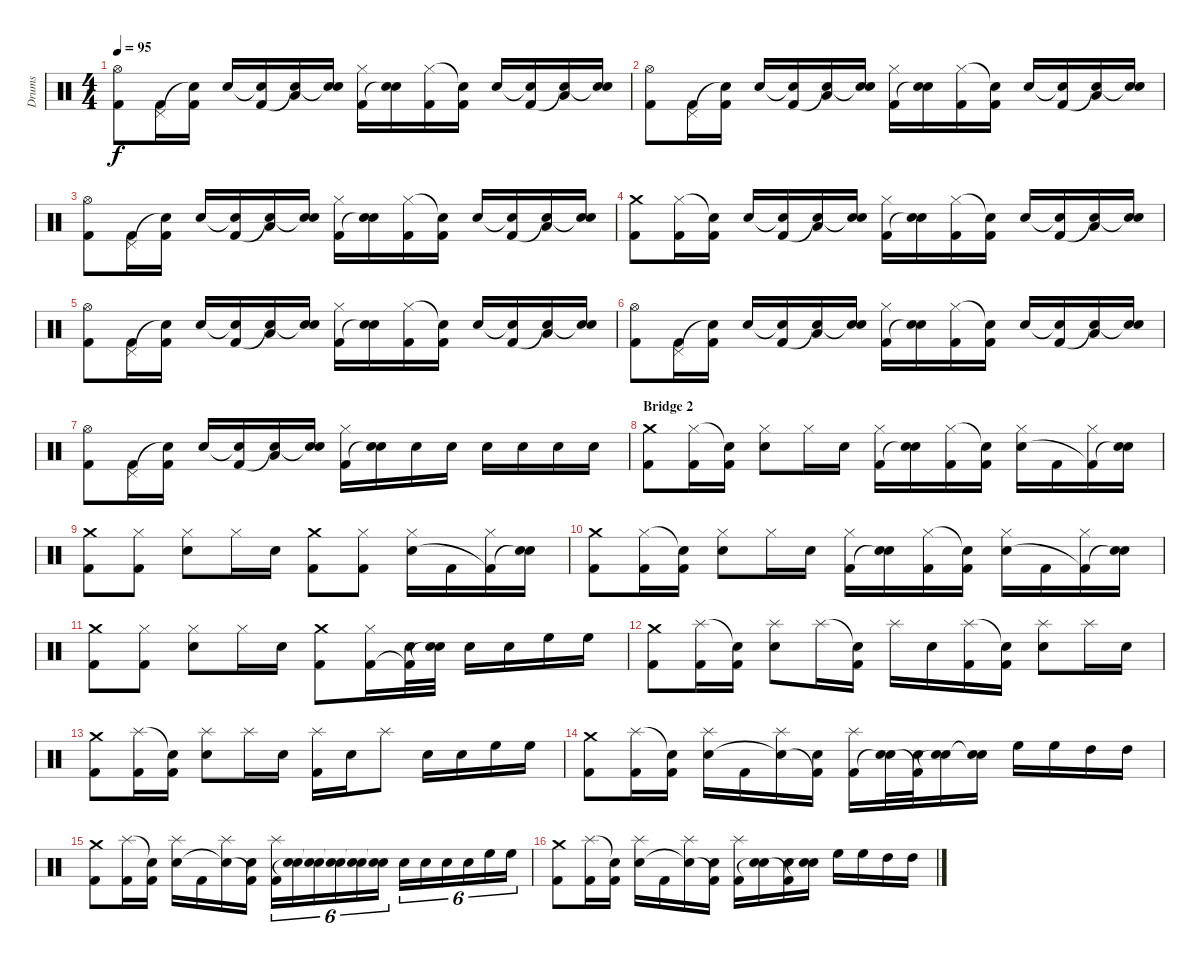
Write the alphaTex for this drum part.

\track ("Drums" "Drums") {instrument percussion}
\staff {score}
\articulation defaults
\ts (4 4)
\tempo 95
\clef neutral
\ks c
("Hi-Hat (open)" "Kick (hit) 2").8{dy f} ("Pedal Hi-Hat (hit)" "Kick (hit) 2").16 ("Snare (hit)"{t} "Kick (hit) 2").16 "Electric Snare (hit)".16 ("Snare (hit)"{t} "Kick (hit) 2").16 ("Low Tom (hit)" "Snare (hit)"{t}).16 ("Electric Snare (hit)" "Snare (hit)"{t}).16 ("Hi-Hat (closed)" "Kick (hit) 2").16 ("Electric Snare (hit)" "Snare (hit)"{t}).16 ("Hi-Hat (closed)" "Kick (hit) 2").16 ("Snare (hit)"{t} "Kick (hit) 2").16 "Electric Snare (hit)".16 ("Snare (hit)"{t} "Kick (hit) 2").16 ("Low Tom (hit)" "Snare (hit)"{t}).16 ("Electric Snare (hit)" "Snare (hit)"{t}).16 |
("Hi-Hat (open)" "Kick (hit) 2").8 ("Pedal Hi-Hat (hit)" "Kick (hit) 2").16 ("Snare (hit)"{t} "Kick (hit) 2").16 "Electric Snare (hit)".16 ("Snare (hit)"{t} "Kick (hit) 2").16 ("Low Tom (hit)" "Snare (hit)"{t}).16 ("Electric Snare (hit)" "Snare (hit)"{t}).16 ("Hi-Hat (closed)" "Kick (hit) 2").16 ("Electric Snare (hit)" "Snare (hit)"{t}).16 ("Hi-Hat (closed)" "Kick (hit) 2").16 ("Snare (hit)"{t} "Kick (hit) 2").16 "Electric Snare (hit)".16 ("Snare (hit)"{t} "Kick (hit) 2").16 ("Low Tom (hit)" "Snare (hit)"{t}).16 ("Electric Snare (hit)" "Snare (hit)"{t}).16 |
("Hi-Hat (open)" "Kick (hit) 2").8 ("Pedal Hi-Hat (hit)" "Kick (hit) 2").16 ("Snare (hit)"{t} "Kick (hit) 2").16 "Electric Snare (hit)".16 ("Snare (hit)"{t} "Kick (hit) 2").16 ("Low Tom (hit)" "Snare (hit)"{t}).16 ("Electric Snare (hit)" "Snare (hit)"{t}).16 ("Hi-Hat (closed)" "Kick (hit) 2").16 ("Electric Snare (hit)" "Snare (hit)"{t}).16 ("Hi-Hat (closed)" "Kick (hit) 2").16 ("Snare (hit)"{t} "Kick (hit) 2").16 "Electric Snare (hit)".16 ("Snare (hit)"{t} "Kick (hit) 2").16 ("Low Tom (hit)" "Snare (hit)"{t}).16 ("Electric Snare (hit)" "Snare (hit)"{t}).16 |
("Crash medium (hit)" "Kick (hit) 2").8 ("Hi-Hat (closed)" "Kick (hit) 2").16 ("Snare (hit)"{t} "Kick (hit) 2").16 "Electric Snare (hit)".16 ("Snare (hit)"{t} "Kick (hit) 2").16 ("Low Tom (hit)" "Snare (hit)"{t}).16 ("Electric Snare (hit)" "Snare (hit)"{t}).16 ("Hi-Hat (closed)" "Kick (hit) 2").16 ("Electric Snare (hit)" "Snare (hit)"{t}).16 ("Hi-Hat (closed)" "Kick (hit) 2").16 ("Snare (hit)"{t} "Kick (hit) 2").16 "Electric Snare (hit)".16 ("Snare (hit)"{t} "Kick (hit) 2").16 ("Low Tom (hit)" "Snare (hit)"{t}).16 ("Electric Snare (hit)" "Snare (hit)"{t}).16 |
("Hi-Hat (open)" "Kick (hit) 2").8 ("Pedal Hi-Hat (hit)" "Kick (hit) 2").16 ("Snare (hit)"{t} "Kick (hit) 2").16 "Electric Snare (hit)".16 ("Snare (hit)"{t} "Kick (hit) 2").16 ("Low Tom (hit)" "Snare (hit)"{t}).16 ("Electric Snare (hit)" "Snare (hit)"{t}).16 ("Hi-Hat (closed)" "Kick (hit) 2").16 ("Electric Snare (hit)" "Snare (hit)"{t}).16 ("Hi-Hat (closed)" "Kick (hit) 2").16 ("Snare (hit)"{t} "Kick (hit) 2").16 "Electric Snare (hit)".16 ("Snare (hit)"{t} "Kick (hit) 2").16 ("Low Tom (hit)" "Snare (hit)"{t}).16 ("Electric Snare (hit)" "Snare (hit)"{t}).16 |
("Hi-Hat (open)" "Kick (hit) 2").8 ("Pedal Hi-Hat (hit)" "Kick (hit) 2").16 ("Snare (hit)"{t} "Kick (hit) 2").16 "Electric Snare (hit)".16 ("Snare (hit)"{t} "Kick (hit) 2").16 ("Low Tom (hit)" "Snare (hit)"{t}).16 ("Electric Snare (hit)" "Snare (hit)"{t}).16 ("Hi-Hat (closed)" "Kick (hit) 2").16 ("Electric Snare (hit)" "Snare (hit)"{t}).16 ("Hi-Hat (closed)" "Kick (hit) 2").16 ("Snare (hit)"{t} "Kick (hit) 2").16 "Electric Snare (hit)".16 ("Snare (hit)"{t} "Kick (hit) 2").16 ("Low Tom (hit)" "Snare (hit)"{t}).16 ("Electric Snare (hit)" "Snare (hit)"{t}).16 |
("Hi-Hat (open)" "Kick (hit) 2").8 ("Pedal Hi-Hat (hit)" "Kick (hit) 2").16 ("Snare (hit)"{t} "Kick (hit) 2").16 "Electric Snare (hit)".16 ("Snare (hit)"{t} "Kick (hit) 2").16 ("Low Tom (hit)" "Snare (hit)"{t}).16 ("Electric Snare (hit)" "Snare (hit)"{t}).16 ("Hi-Hat (closed)" "Kick (hit) 2").16 ("Electric Snare (hit)" "Snare (hit)"{t}).16 "Electric Snare (hit)".16 "Electric Snare (hit)".16 "Electric Snare (hit)".16 "Electric Snare (hit)".16 "Electric Snare (hit)".16 "Electric Snare (hit)".16 |
\section ("" "Bridge 2")
("Crash medium (hit)" "Kick (hit) 2").8 ("Hi-Hat (closed)" "Kick (hit) 2").16 ("Snare (hit)"{t} "Kick (hit) 2").16 ("Hi-Hat (closed)" "Electric Snare (hit)").8 "Hi-Hat (closed)".16 "Electric Snare (hit)".16 ("Hi-Hat (closed)" "Kick (hit) 2").16 ("Electric Snare (hit)" "Snare (hit)"{t}).16 ("Hi-Hat (closed)" "Kick (hit) 2").16 ("Snare (hit)"{t} "Kick (hit) 2").16 ("Hi-Hat (closed)" "Electric Snare (hit)").16 "Kick (hit) 2".16 ("Hi-Hat (closed)" "Kick (hit) 2"{t}).16 ("Electric Snare (hit)" "Snare (hit)"{t}).16 |
("Crash medium (hit)" "Kick (hit) 2").8 ("Hi-Hat (closed)" "Kick (hit) 2").8 ("Hi-Hat (closed)" "Electric Snare (hit)").8 "Hi-Hat (closed)".16 "Electric Snare (hit)".16 ("Crash medium (hit)" "Kick (hit) 2").8 ("Hi-Hat (closed)" "Kick (hit) 2").8 ("Hi-Hat (closed)" "Electric Snare (hit)").16 "Kick (hit) 2".16 ("Hi-Hat (closed)" "Kick (hit) 2"{t}).16 ("Electric Snare (hit)" "Snare (hit)"{t}).16 |
("Crash medium (hit)" "Kick (hit) 2").8 ("Hi-Hat (closed)" "Kick (hit) 2").16 ("Snare (hit)"{t} "Kick (hit) 2").16 ("Hi-Hat (closed)" "Electric Snare (hit)").8 "Hi-Hat (closed)".16 "Electric Snare (hit)".16 ("Hi-Hat (closed)" "Kick (hit) 2").16 ("Electric Snare (hit)" "Snare (hit)"{t}).16 ("Hi-Hat (closed)" "Kick (hit) 2").16 ("Snare (hit)"{t} "Kick (hit) 2").16 ("Hi-Hat (closed)" "Electric Snare (hit)").16 "Kick (hit) 2".16 ("Hi-Hat (closed)" "Kick (hit) 2"{t}).16 ("Electric Snare (hit)" "Snare (hit)"{t}).16 |
("Crash medium (hit)" "Kick (hit) 2").8 ("Hi-Hat (closed)" "Kick (hit) 2").8 ("Hi-Hat (closed)" "Electric Snare (hit)").8 "Hi-Hat (closed)".16 "Electric Snare (hit)".16 ("Crash medium (hit)" "Kick (hit) 2").8 ("Hi-Hat (closed)" "Kick (hit) 2").16 ("Electric Snare (hit)" "Kick (hit) 2"{t}).32 ("Electric Snare (hit)" "Snare (hit)"{t}).32 "Electric Snare (hit)".16 "Electric Snare (hit)".16 "High Floor Tom (hit)".16 "High Floor Tom (hit)".16 |
("Crash medium (hit)" "Kick (hit) 2").8 ("Splash (hit)" "Kick (hit) 2").16 ("Snare (hit)"{t} "Kick (hit) 2").16 ("Splash (hit)" "Electric Snare (hit)").8 "Splash (hit)".16 ("Snare (hit)"{t} "Kick (hit) 2").16 "Splash (hit)".16 "Electric Snare (hit)".16 ("Splash (hit)" "Kick (hit) 2").16 ("Snare (hit)"{t} "Kick (hit) 2").16 ("Splash (hit)" "Electric Snare (hit)").8 "Splash (hit)".16 "Electric Snare (hit)".16 |
("Crash medium (hit)" "Kick (hit) 2").8 ("Splash (hit)" "Kick (hit) 2").16 ("Snare (hit)"{t} "Kick (hit) 2").16 ("Splash (hit)" "Electric Snare (hit)").8 "Splash (hit)".16 "Electric Snare (hit)".16 ("Splash (hit)" "Kick (hit) 2").16 "Electric Snare (hit)".16 "Splash (hit)".8 "Electric Snare (hit)".16 "Electric Snare (hit)".16 "High Floor Tom (hit)".16 "High Floor Tom (hit)".16 |
("Crash medium (hit)" "Kick (hit) 2").8 ("Splash (hit)" "Kick (hit) 2").16 ("Snare (hit)"{t} "Kick (hit) 2").16 ("Splash (hit)" "Electric Snare (hit)").16 "Kick (hit) 2".16 ("Splash (hit)" "Snare (hit)"{t}).16 ("Electric Snare (hit)" "Kick (hit) 2"{t}).16 ("Splash (hit)" "Kick (hit) 2").16 ("Electric Snare (hit)" "Snare (hit)"{t}).32 ("Electric Snare (hit)" "Kick (hit) 2"{t}).32 ("Electric Snare (hit)" "Snare (hit)"{t}).16 ("Electric Snare (hit)" "Snare (hit)"{t}).16 "High Floor Tom (hit)".16 "High Floor Tom (hit)".16 "High Tom (hit)".16 "High Tom (hit)".16 |
("Crash medium (hit)" "Kick (hit) 2").8 ("Splash (hit)" "Kick (hit) 2").16 ("Snare (hit)"{t} "Kick (hit) 2").16 ("Splash (hit)" "Electric Snare (hit)").16 "Kick (hit) 2".16 ("Splash (hit)" "Snare (hit)"{t}).16 ("Electric Snare (hit)" "Kick (hit) 2"{t}).16 ("Splash (hit)" "Kick (hit) 2").16{tu (6 4)} ("Electric Snare (hit)" "Snare (hit)"{t}).16{tu (6 4)} ("Electric Snare (hit)" "Snare (hit)"{t}).16{tu (6 4)} ("Electric Snare (hit)" "Snare (hit)"{t}).16{tu (6 4)} ("Electric Snare (hit)" "Snare (hit)"{t}).16{tu (6 4)} ("Electric Snare (hit)" "Snare (hit)"{t}).16{tu (6 4)} "Electric Snare (hit)".16{tu (6 4)} "Electric Snare (hit)".16{tu (6 4)} "Electric Snare (hit)".16{tu (6 4)} "Electric Snare (hit)".16{tu (6 4)} "High Floor Tom (hit)".16{tu (6 4)} "High Floor Tom (hit)".16{tu (6 4)} |
("Crash medium (hit)" "Kick (hit) 2").8 ("Splash (hit)" "Kick (hit) 2").16 ("Snare (hit)"{t} "Kick (hit) 2").16 ("Splash (hit)" "Electric Snare (hit)").16 "Kick (hit) 2".16 ("Splash (hit)" "Snare (hit)"{t}).16 ("Electric Snare (hit)" "Kick (hit) 2"{t}).16 ("Splash (hit)" "Kick (hit) 2").16 ("Electric Snare (hit)" "Snare (hit)"{t}).16 ("Electric Snare (hit)" "Kick (hit) 2"{t}).16 ("Electric Snare (hit)" "Snare (hit)"{t}).16 "High Floor Tom (hit)".16 "High Floor Tom (hit)".16 "High Tom (hit)".16 "High Tom (hit)".16
